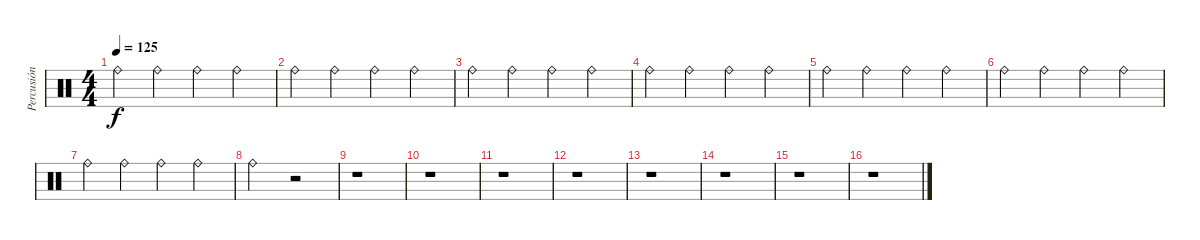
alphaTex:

\track ("Percusión" "Percusión") {instrument percussion}
\staff {score}
\articulation defaults
\ts (4 4)
\tempo 125
\clef neutral
\ks c "Ride (bell)".4{dy f} "Ride (bell)".4 "Ride (bell)".4 "Ride (bell)".4
|
"Ride (bell)".4 "Ride (bell)".4 "Ride (bell)".4 "Ride (bell)".4 |
"Ride (bell)".4 "Ride (bell)".4 "Ride (bell)".4 "Ride (bell)".4 |
"Ride (bell)".4 "Ride (bell)".4 "Ride (bell)".4 "Ride (bell)".4 |
"Ride (bell)".4 "Ride (bell)".4 "Ride (bell)".4 "Ride (bell)".4 |
"Ride (bell)".4 "Ride (bell)".4 "Ride (bell)".4 "Ride (bell)".4 |
"Ride (bell)".4 "Ride (bell)".4 "Ride (bell)".4 "Ride (bell)".4 |
"Ride (bell)".2 r.2 |
r.1 |
r.1 |
r.1 |
r.1 |
r.1 |
r.1 |
r.1 |
r.1
